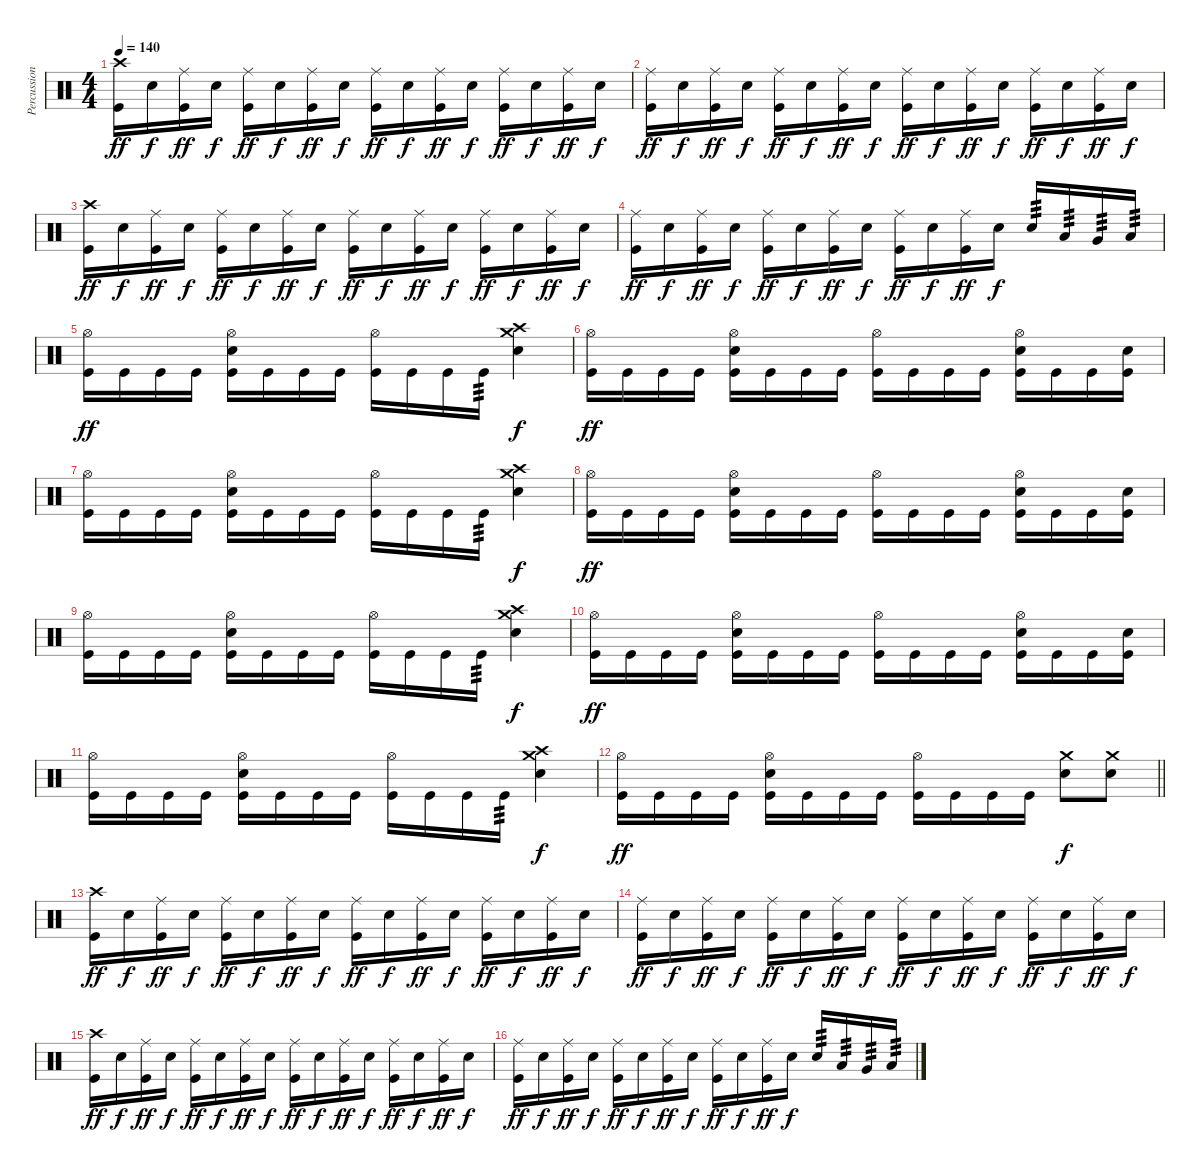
\track ("Percussion" "Percussion") {instrument percussion}
\staff {score}
\articulation defaults
\ts (4 4)
\tempo 140
\clef neutral
\ks c
("Crash high (hit)" "Kick (hit)").16{dy ff} "Electric Snare (hit)".16{dy f} ("Ride (middle)" "Kick (hit)").16{dy ff} "Electric Snare (hit)".16{dy f} ("Ride (middle)" "Kick (hit)").16{dy ff} "Electric Snare (hit)".16{dy f} ("Ride (middle)" "Kick (hit)").16{dy ff} "Electric Snare (hit)".16{dy f} ("Ride (middle)" "Kick (hit)").16{dy ff} "Electric Snare (hit)".16{dy f} ("Ride (middle)" "Kick (hit)").16{dy ff} "Electric Snare (hit)".16{dy f} ("Ride (middle)" "Kick (hit)").16{dy ff} "Electric Snare (hit)".16{dy f} ("Ride (middle)" "Kick (hit)").16{dy ff} "Electric Snare (hit)".16{dy f} |
("Ride (middle)" "Kick (hit)").16{dy ff} "Electric Snare (hit)".16{dy f} ("Ride (middle)" "Kick (hit)").16{dy ff} "Electric Snare (hit)".16{dy f} ("Ride (middle)" "Kick (hit)").16{dy ff} "Electric Snare (hit)".16{dy f} ("Ride (middle)" "Kick (hit)").16{dy ff} "Electric Snare (hit)".16{dy f} ("Ride (middle)" "Kick (hit)").16{dy ff} "Electric Snare (hit)".16{dy f} ("Ride (middle)" "Kick (hit)").16{dy ff} "Electric Snare (hit)".16{dy f} ("Ride (middle)" "Kick (hit)").16{dy ff} "Electric Snare (hit)".16{dy f} ("Ride (middle)" "Kick (hit)").16{dy ff} "Electric Snare (hit)".16{dy f} |
("Crash high (hit)" "Kick (hit)").16{dy ff} "Electric Snare (hit)".16{dy f} ("Ride (middle)" "Kick (hit)").16{dy ff} "Electric Snare (hit)".16{dy f} ("Ride (middle)" "Kick (hit)").16{dy ff} "Electric Snare (hit)".16{dy f} ("Ride (middle)" "Kick (hit)").16{dy ff} "Electric Snare (hit)".16{dy f} ("Ride (middle)" "Kick (hit)").16{dy ff} "Electric Snare (hit)".16{dy f} ("Ride (middle)" "Kick (hit)").16{dy ff} "Electric Snare (hit)".16{dy f} ("Ride (middle)" "Kick (hit)").16{dy ff} "Electric Snare (hit)".16{dy f} ("Ride (middle)" "Kick (hit)").16{dy ff} "Electric Snare (hit)".16{dy f} |
("Ride (middle)" "Kick (hit)").16{dy ff} "Electric Snare (hit)".16{dy f} ("Ride (middle)" "Kick (hit)").16{dy ff} "Electric Snare (hit)".16{dy f} ("Ride (middle)" "Kick (hit)").16{dy ff} "Electric Snare (hit)".16{dy f} ("Ride (middle)" "Kick (hit)").16{dy ff} "Electric Snare (hit)".16{dy f} ("Ride (middle)" "Kick (hit)").16{dy ff} "Electric Snare (hit)".16{dy f} ("Ride (middle)" "Kick (hit)").16{dy ff} "Electric Snare (hit)".16{dy f} "Electric Snare (hit)".16{tp 3} "Low Tom (hit)".16{tp 3} "Very Low Tom (hit)".16{tp 3} "Low Floor Tom (hit)".16{tp 3} |
("Hi-Hat (open)" "Kick (hit)").16{dy ff} "Kick (hit)".16 "Kick (hit)".16 "Kick (hit)".16 ("Hi-Hat (open)" "Electric Snare (hit)" "Kick (hit)").16 "Kick (hit)".16 "Kick (hit)".16 "Kick (hit)".16 ("Hi-Hat (open)" "Kick (hit)").16 "Kick (hit)".16 "Kick (hit)".16 "Kick (hit)".16{tp 3} ("Crash medium (hit)" "Crash high (hit)" "Electric Snare (hit)").4{dy f} |
("Hi-Hat (open)" "Kick (hit)").16{dy ff} "Kick (hit)".16 "Kick (hit)".16 "Kick (hit)".16 ("Hi-Hat (open)" "Electric Snare (hit)" "Kick (hit)").16 "Kick (hit)".16 "Kick (hit)".16 "Kick (hit)".16 ("Hi-Hat (open)" "Kick (hit)").16 "Kick (hit)".16 "Kick (hit)".16 "Kick (hit)".16 ("Hi-Hat (open)" "Electric Snare (hit)" "Kick (hit)").16 "Kick (hit)".16 "Kick (hit)".16 ("Electric Snare (hit)" "Kick (hit)").16 |
("Hi-Hat (open)" "Kick (hit)").16 "Kick (hit)".16 "Kick (hit)".16 "Kick (hit)".16 ("Hi-Hat (open)" "Electric Snare (hit)" "Kick (hit)").16 "Kick (hit)".16 "Kick (hit)".16 "Kick (hit)".16 ("Hi-Hat (open)" "Kick (hit)").16 "Kick (hit)".16 "Kick (hit)".16 "Kick (hit)".16{tp 3} ("Crash medium (hit)" "Crash high (hit)" "Electric Snare (hit)").4{dy f} |
("Hi-Hat (open)" "Kick (hit)").16{dy ff} "Kick (hit)".16 "Kick (hit)".16 "Kick (hit)".16 ("Hi-Hat (open)" "Electric Snare (hit)" "Kick (hit)").16 "Kick (hit)".16 "Kick (hit)".16 "Kick (hit)".16 ("Hi-Hat (open)" "Kick (hit)").16 "Kick (hit)".16 "Kick (hit)".16 "Kick (hit)".16 ("Hi-Hat (open)" "Electric Snare (hit)" "Kick (hit)").16 "Kick (hit)".16 "Kick (hit)".16 ("Electric Snare (hit)" "Kick (hit)").16 |
("Hi-Hat (open)" "Kick (hit)").16 "Kick (hit)".16 "Kick (hit)".16 "Kick (hit)".16 ("Hi-Hat (open)" "Electric Snare (hit)" "Kick (hit)").16 "Kick (hit)".16 "Kick (hit)".16 "Kick (hit)".16 ("Hi-Hat (open)" "Kick (hit)").16 "Kick (hit)".16 "Kick (hit)".16 "Kick (hit)".16{tp 3} ("Crash medium (hit)" "Crash high (hit)" "Electric Snare (hit)").4{dy f} |
("Hi-Hat (open)" "Kick (hit)").16{dy ff} "Kick (hit)".16 "Kick (hit)".16 "Kick (hit)".16 ("Hi-Hat (open)" "Electric Snare (hit)" "Kick (hit)").16 "Kick (hit)".16 "Kick (hit)".16 "Kick (hit)".16 ("Hi-Hat (open)" "Kick (hit)").16 "Kick (hit)".16 "Kick (hit)".16 "Kick (hit)".16 ("Hi-Hat (open)" "Electric Snare (hit)" "Kick (hit)").16 "Kick (hit)".16 "Kick (hit)".16 ("Electric Snare (hit)" "Kick (hit)").16 |
("Hi-Hat (open)" "Kick (hit)").16 "Kick (hit)".16 "Kick (hit)".16 "Kick (hit)".16 ("Hi-Hat (open)" "Electric Snare (hit)" "Kick (hit)").16 "Kick (hit)".16 "Kick (hit)".16 "Kick (hit)".16 ("Hi-Hat (open)" "Kick (hit)").16 "Kick (hit)".16 "Kick (hit)".16 "Kick (hit)".16{tp 3} ("Crash medium (hit)" "Crash high (hit)" "Electric Snare (hit)").4{dy f} |
\barLineRight lightlight
("Hi-Hat (open)" "Kick (hit)").16{dy ff} "Kick (hit)".16 "Kick (hit)".16 "Kick (hit)".16 ("Hi-Hat (open)" "Electric Snare (hit)" "Kick (hit)").16 "Kick (hit)".16 "Kick (hit)".16 "Kick (hit)".16 ("Hi-Hat (open)" "Kick (hit)").16 "Kick (hit)".16 "Kick (hit)".16 "Kick (hit)".16 ("Crash medium (hit)" "Electric Snare (hit)").8{dy f} ("Crash medium (hit)" "Electric Snare (hit)").8 |
("Crash high (hit)" "Kick (hit)").16{dy ff} "Electric Snare (hit)".16{dy f} ("Ride (middle)" "Kick (hit)").16{dy ff} "Electric Snare (hit)".16{dy f} ("Ride (middle)" "Kick (hit)").16{dy ff} "Electric Snare (hit)".16{dy f} ("Ride (middle)" "Kick (hit)").16{dy ff} "Electric Snare (hit)".16{dy f} ("Ride (middle)" "Kick (hit)").16{dy ff} "Electric Snare (hit)".16{dy f} ("Ride (middle)" "Kick (hit)").16{dy ff} "Electric Snare (hit)".16{dy f} ("Ride (middle)" "Kick (hit)").16{dy ff} "Electric Snare (hit)".16{dy f} ("Ride (middle)" "Kick (hit)").16{dy ff} "Electric Snare (hit)".16{dy f} |
("Ride (middle)" "Kick (hit)").16{dy ff} "Electric Snare (hit)".16{dy f} ("Ride (middle)" "Kick (hit)").16{dy ff} "Electric Snare (hit)".16{dy f} ("Ride (middle)" "Kick (hit)").16{dy ff} "Electric Snare (hit)".16{dy f} ("Ride (middle)" "Kick (hit)").16{dy ff} "Electric Snare (hit)".16{dy f} ("Ride (middle)" "Kick (hit)").16{dy ff} "Electric Snare (hit)".16{dy f} ("Ride (middle)" "Kick (hit)").16{dy ff} "Electric Snare (hit)".16{dy f} ("Ride (middle)" "Kick (hit)").16{dy ff} "Electric Snare (hit)".16{dy f} ("Ride (middle)" "Kick (hit)").16{dy ff} "Electric Snare (hit)".16{dy f} |
("Crash high (hit)" "Kick (hit)").16{dy ff} "Electric Snare (hit)".16{dy f} ("Ride (middle)" "Kick (hit)").16{dy ff} "Electric Snare (hit)".16{dy f} ("Ride (middle)" "Kick (hit)").16{dy ff} "Electric Snare (hit)".16{dy f} ("Ride (middle)" "Kick (hit)").16{dy ff} "Electric Snare (hit)".16{dy f} ("Ride (middle)" "Kick (hit)").16{dy ff} "Electric Snare (hit)".16{dy f} ("Ride (middle)" "Kick (hit)").16{dy ff} "Electric Snare (hit)".16{dy f} ("Ride (middle)" "Kick (hit)").16{dy ff} "Electric Snare (hit)".16{dy f} ("Ride (middle)" "Kick (hit)").16{dy ff} "Electric Snare (hit)".16{dy f} |
("Ride (middle)" "Kick (hit)").16{dy ff} "Electric Snare (hit)".16{dy f} ("Ride (middle)" "Kick (hit)").16{dy ff} "Electric Snare (hit)".16{dy f} ("Ride (middle)" "Kick (hit)").16{dy ff} "Electric Snare (hit)".16{dy f} ("Ride (middle)" "Kick (hit)").16{dy ff} "Electric Snare (hit)".16{dy f} ("Ride (middle)" "Kick (hit)").16{dy ff} "Electric Snare (hit)".16{dy f} ("Ride (middle)" "Kick (hit)").16{dy ff} "Electric Snare (hit)".16{dy f} "Electric Snare (hit)".16{tp 3} "Low Tom (hit)".16{tp 3} "Very Low Tom (hit)".16{tp 3} "Low Floor Tom (hit)".16{tp 3}
